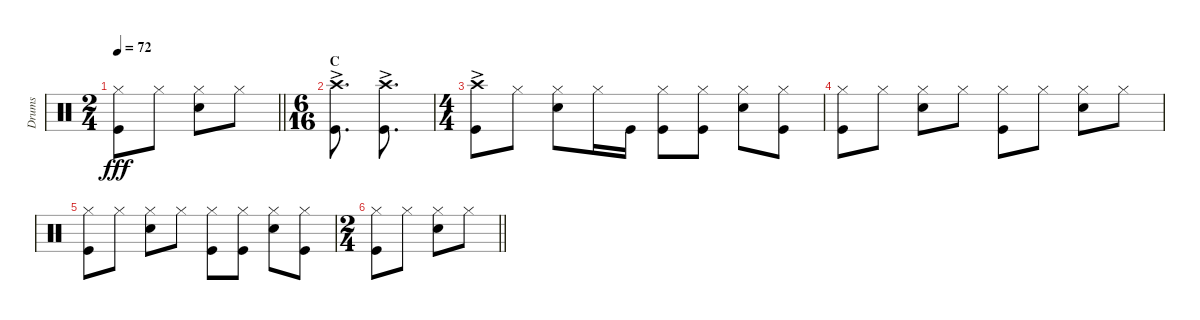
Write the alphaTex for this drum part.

\track ("Drums" "Drums") {instrument percussion}
\staff {score}
\articulation defaults
\ts (2 4)
\tempo 72
\clef neutral
\barLineRight lightlight
\ks c
("Hi-Hat (closed)" "Kick (hit)").8{dy fff} "Hi-Hat (closed)".8 ("Hi-Hat (closed)" "Snare (hit) 2").8 "Hi-Hat (closed)".8 |
\ts (6 16)
\section ("" "C")
("Crash high (hit)"{ac} "Kick (hit)").8{d} ("Crash high (hit)"{ac} "Kick (hit)").8{d} |
\ts (4 4)
("Crash high (hit)"{ac} "Kick (hit)").8 "Hi-Hat (closed)".8 ("Hi-Hat (closed)" "Snare (hit) 2").8 "Hi-Hat (closed)".16 "Kick (hit)".16 ("Hi-Hat (closed)" "Kick (hit)").8 ("Hi-Hat (closed)" "Kick (hit)").8 ("Hi-Hat (closed)" "Snare (hit) 2").8 ("Hi-Hat (closed)" "Kick (hit)").8 |
("Hi-Hat (closed)" "Kick (hit)").8 "Hi-Hat (closed)".8 ("Hi-Hat (closed)" "Snare (hit) 2").8 "Hi-Hat (closed)".8 ("Hi-Hat (closed)" "Kick (hit)").8 "Hi-Hat (closed)".8 ("Hi-Hat (closed)" "Snare (hit) 2").8 "Hi-Hat (closed)".8 |
("Hi-Hat (closed)" "Kick (hit)").8 "Hi-Hat (closed)".8 ("Hi-Hat (closed)" "Snare (hit) 2").8 "Hi-Hat (closed)".8 ("Hi-Hat (closed)" "Kick (hit)").8 ("Hi-Hat (closed)" "Kick (hit)").8 ("Hi-Hat (closed)" "Snare (hit) 2").8 ("Hi-Hat (closed)" "Kick (hit)").8 |
\ts (2 4)
\barLineRight lightlight
("Hi-Hat (closed)" "Kick (hit)").8 "Hi-Hat (closed)".8 ("Hi-Hat (closed)" "Snare (hit) 2").8 "Hi-Hat (closed)".8
